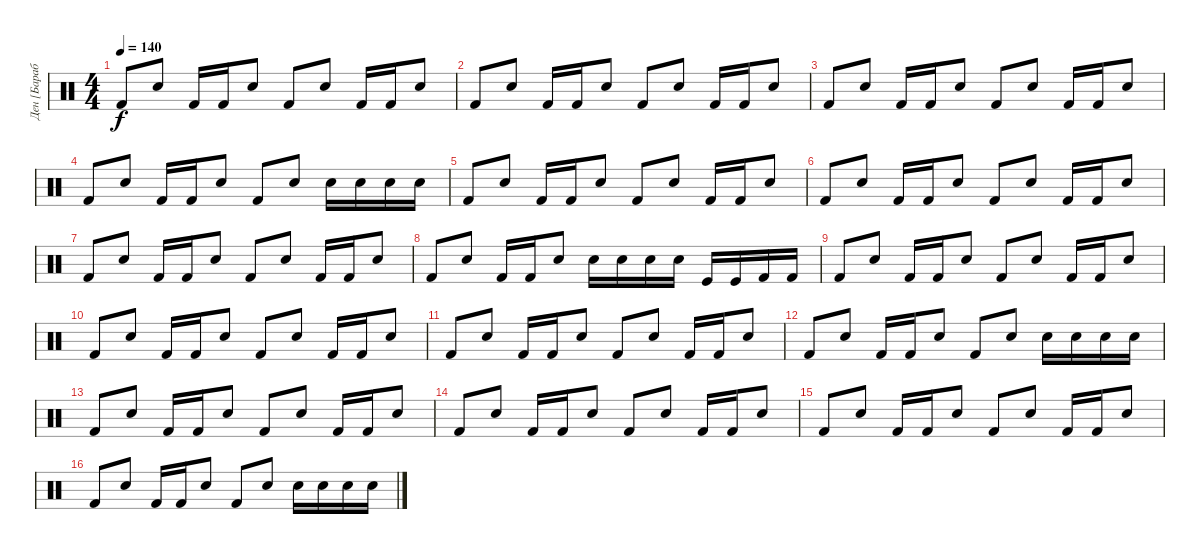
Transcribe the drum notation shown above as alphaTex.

\track ("Ден [Барабаны]" "Ден [Бараб") {instrument percussion}
\staff {score}
\articulation defaults
\ts (4 4)
\tempo 140
\clef neutral
\ks c "Kick (hit) 2".8{dy f} "Electric Snare (hit)".8 "Kick (hit) 2".16 "Kick (hit) 2".16 "Electric Snare (hit)".8 "Kick (hit) 2".8 "Electric Snare (hit)".8 "Kick (hit) 2".16 "Kick (hit) 2".16 "Electric Snare (hit)".8
|
"Kick (hit) 2".8 "Electric Snare (hit)".8 "Kick (hit) 2".16 "Kick (hit) 2".16 "Electric Snare (hit)".8 "Kick (hit) 2".8 "Electric Snare (hit)".8 "Kick (hit) 2".16 "Kick (hit) 2".16 "Electric Snare (hit)".8 |
"Kick (hit) 2".8 "Electric Snare (hit)".8 "Kick (hit) 2".16 "Kick (hit) 2".16 "Electric Snare (hit)".8 "Kick (hit) 2".8 "Electric Snare (hit)".8 "Kick (hit) 2".16 "Kick (hit) 2".16 "Electric Snare (hit)".8 |
"Kick (hit) 2".8 "Electric Snare (hit)".8 "Kick (hit) 2".16 "Kick (hit) 2".16 "Electric Snare (hit)".8 "Kick (hit) 2".8 "Electric Snare (hit)".8 "Electric Snare (hit)".16 "Electric Snare (hit)".16 "Electric Snare (hit)".16 "Electric Snare (hit)".16 |
"Kick (hit) 2".8 "Electric Snare (hit)".8 "Kick (hit) 2".16 "Kick (hit) 2".16 "Electric Snare (hit)".8 "Kick (hit) 2".8 "Electric Snare (hit)".8 "Kick (hit) 2".16 "Kick (hit) 2".16 "Electric Snare (hit)".8 |
"Kick (hit) 2".8 "Electric Snare (hit)".8 "Kick (hit) 2".16 "Kick (hit) 2".16 "Electric Snare (hit)".8 "Kick (hit) 2".8 "Electric Snare (hit)".8 "Kick (hit) 2".16 "Kick (hit) 2".16 "Electric Snare (hit)".8 |
"Kick (hit) 2".8 "Electric Snare (hit)".8 "Kick (hit) 2".16 "Kick (hit) 2".16 "Electric Snare (hit)".8 "Kick (hit) 2".8 "Electric Snare (hit)".8 "Kick (hit) 2".16 "Kick (hit) 2".16 "Electric Snare (hit)".8 |
"Kick (hit) 2".8 "Electric Snare (hit)".8 "Kick (hit) 2".16 "Kick (hit) 2".16 "Electric Snare (hit)".8 "Electric Snare (hit)".16 "Electric Snare (hit)".16 "Electric Snare (hit)".16 "Electric Snare (hit)".16 "Kick (hit)".16 "Kick (hit)".16 "Kick (hit) 2".16 "Kick (hit) 2".16 |
"Kick (hit) 2".8 "Electric Snare (hit)".8 "Kick (hit) 2".16 "Kick (hit) 2".16 "Electric Snare (hit)".8 "Kick (hit) 2".8 "Electric Snare (hit)".8 "Kick (hit) 2".16 "Kick (hit) 2".16 "Electric Snare (hit)".8 |
"Kick (hit) 2".8 "Electric Snare (hit)".8 "Kick (hit) 2".16 "Kick (hit) 2".16 "Electric Snare (hit)".8 "Kick (hit) 2".8 "Electric Snare (hit)".8 "Kick (hit) 2".16 "Kick (hit) 2".16 "Electric Snare (hit)".8 |
"Kick (hit) 2".8 "Electric Snare (hit)".8 "Kick (hit) 2".16 "Kick (hit) 2".16 "Electric Snare (hit)".8 "Kick (hit) 2".8 "Electric Snare (hit)".8 "Kick (hit) 2".16 "Kick (hit) 2".16 "Electric Snare (hit)".8 |
"Kick (hit) 2".8 "Electric Snare (hit)".8 "Kick (hit) 2".16 "Kick (hit) 2".16 "Electric Snare (hit)".8 "Kick (hit) 2".8 "Electric Snare (hit)".8 "Electric Snare (hit)".16 "Electric Snare (hit)".16 "Electric Snare (hit)".16 "Electric Snare (hit)".16 |
"Kick (hit) 2".8 "Electric Snare (hit)".8 "Kick (hit) 2".16 "Kick (hit) 2".16 "Electric Snare (hit)".8 "Kick (hit) 2".8 "Electric Snare (hit)".8 "Kick (hit) 2".16 "Kick (hit) 2".16 "Electric Snare (hit)".8 |
"Kick (hit) 2".8 "Electric Snare (hit)".8 "Kick (hit) 2".16 "Kick (hit) 2".16 "Electric Snare (hit)".8 "Kick (hit) 2".8 "Electric Snare (hit)".8 "Kick (hit) 2".16 "Kick (hit) 2".16 "Electric Snare (hit)".8 |
"Kick (hit) 2".8 "Electric Snare (hit)".8 "Kick (hit) 2".16 "Kick (hit) 2".16 "Electric Snare (hit)".8 "Kick (hit) 2".8 "Electric Snare (hit)".8 "Kick (hit) 2".16 "Kick (hit) 2".16 "Electric Snare (hit)".8 |
"Kick (hit) 2".8 "Electric Snare (hit)".8 "Kick (hit) 2".16 "Kick (hit) 2".16 "Electric Snare (hit)".8 "Kick (hit) 2".8 "Electric Snare (hit)".8 "Electric Snare (hit)".16 "Electric Snare (hit)".16 "Electric Snare (hit)".16 "Electric Snare (hit)".16
